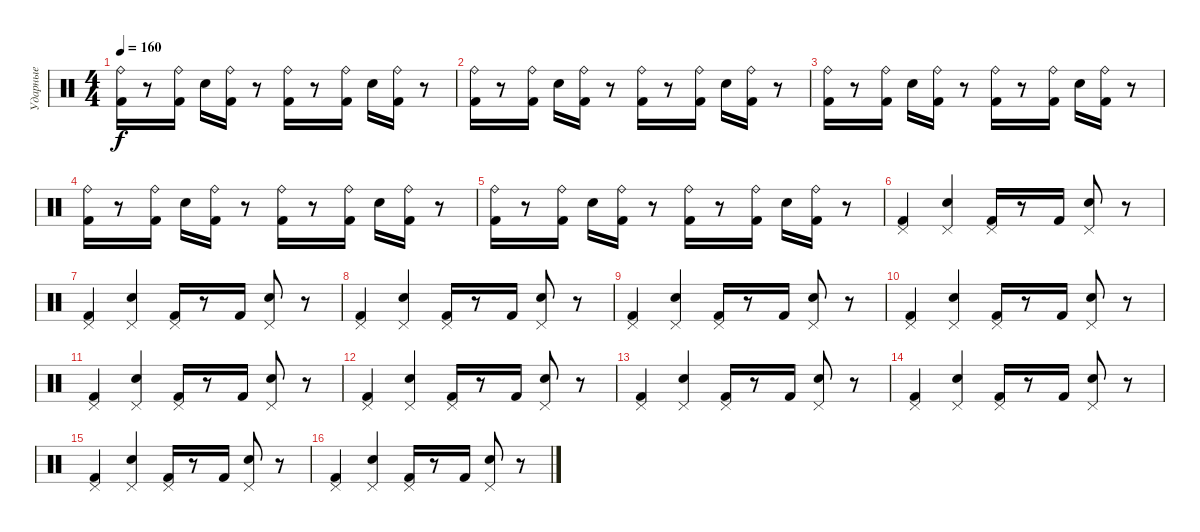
\track ("Ударные" "Ударные") {instrument percussion}
\staff {score}
\articulation defaults
\ts (4 4)
\tempo 160
\clef neutral
\ks c
("Ride (bell)" "Kick (hit) 2").16{dy f} r.8 ("Ride (bell)" "Kick (hit) 2").16 "Snare (hit) 2".16 ("Ride (bell)" "Kick (hit) 2").16 r.8 ("Ride (bell)" "Kick (hit) 2").16 r.8 ("Ride (bell)" "Kick (hit) 2").16 "Snare (hit) 2".16 ("Ride (bell)" "Kick (hit) 2").16 r.8 |
("Ride (bell)" "Kick (hit) 2").16 r.8 ("Ride (bell)" "Kick (hit) 2").16 "Snare (hit) 2".16 ("Ride (bell)" "Kick (hit) 2").16 r.8 ("Ride (bell)" "Kick (hit) 2").16 r.8 ("Ride (bell)" "Kick (hit) 2").16 "Snare (hit) 2".16 ("Ride (bell)" "Kick (hit) 2").16 r.8 |
("Ride (bell)" "Kick (hit) 2").16 r.8 ("Ride (bell)" "Kick (hit) 2").16 "Snare (hit) 2".16 ("Ride (bell)" "Kick (hit) 2").16 r.8 ("Ride (bell)" "Kick (hit) 2").16 r.8 ("Ride (bell)" "Kick (hit) 2").16 "Snare (hit) 2".16 ("Ride (bell)" "Kick (hit) 2").16 r.8 |
("Ride (bell)" "Kick (hit) 2").16 r.8 ("Ride (bell)" "Kick (hit) 2").16 "Snare (hit) 2".16 ("Ride (bell)" "Kick (hit) 2").16 r.8 ("Ride (bell)" "Kick (hit) 2").16 r.8 ("Ride (bell)" "Kick (hit) 2").16 "Snare (hit) 2".16 ("Ride (bell)" "Kick (hit) 2").16 r.8 |
("Ride (bell)" "Kick (hit) 2").16 r.8 ("Ride (bell)" "Kick (hit) 2").16 "Snare (hit) 2".16 ("Ride (bell)" "Kick (hit) 2").16 r.8 ("Ride (bell)" "Kick (hit) 2").16 r.8 ("Ride (bell)" "Kick (hit) 2").16 "Snare (hit) 2".16 ("Ride (bell)" "Kick (hit) 2").16 r.8 |
("Pedal Hi-Hat (hit)" "Kick (hit) 2").4 ("Pedal Hi-Hat (hit)" "Snare (hit) 2").4 ("Pedal Hi-Hat (hit)" "Kick (hit) 2").16 r.8 "Kick (hit) 2".16 ("Pedal Hi-Hat (hit)" "Snare (hit) 2").8 r.8 |
("Pedal Hi-Hat (hit)" "Kick (hit) 2").4 ("Pedal Hi-Hat (hit)" "Snare (hit) 2").4 ("Pedal Hi-Hat (hit)" "Kick (hit) 2").16 r.8 "Kick (hit) 2".16 ("Pedal Hi-Hat (hit)" "Snare (hit) 2").8 r.8 |
("Pedal Hi-Hat (hit)" "Kick (hit) 2").4 ("Pedal Hi-Hat (hit)" "Snare (hit) 2").4 ("Pedal Hi-Hat (hit)" "Kick (hit) 2").16 r.8 "Kick (hit) 2".16 ("Pedal Hi-Hat (hit)" "Snare (hit) 2").8 r.8 |
("Pedal Hi-Hat (hit)" "Kick (hit) 2").4 ("Pedal Hi-Hat (hit)" "Snare (hit) 2").4 ("Pedal Hi-Hat (hit)" "Kick (hit) 2").16 r.8 "Kick (hit) 2".16 ("Pedal Hi-Hat (hit)" "Snare (hit) 2").8 r.8 |
("Pedal Hi-Hat (hit)" "Kick (hit) 2").4 ("Pedal Hi-Hat (hit)" "Snare (hit) 2").4 ("Pedal Hi-Hat (hit)" "Kick (hit) 2").16 r.8 "Kick (hit) 2".16 ("Pedal Hi-Hat (hit)" "Snare (hit) 2").8 r.8 |
("Pedal Hi-Hat (hit)" "Kick (hit) 2").4 ("Pedal Hi-Hat (hit)" "Snare (hit) 2").4 ("Pedal Hi-Hat (hit)" "Kick (hit) 2").16 r.8 "Kick (hit) 2".16 ("Pedal Hi-Hat (hit)" "Snare (hit) 2").8 r.8 |
("Pedal Hi-Hat (hit)" "Kick (hit) 2").4 ("Pedal Hi-Hat (hit)" "Snare (hit) 2").4 ("Pedal Hi-Hat (hit)" "Kick (hit) 2").16 r.8 "Kick (hit) 2".16 ("Pedal Hi-Hat (hit)" "Snare (hit) 2").8 r.8 |
("Pedal Hi-Hat (hit)" "Kick (hit) 2").4 ("Pedal Hi-Hat (hit)" "Snare (hit) 2").4 ("Pedal Hi-Hat (hit)" "Kick (hit) 2").16 r.8 "Kick (hit) 2".16 ("Pedal Hi-Hat (hit)" "Snare (hit) 2").8 r.8 |
("Pedal Hi-Hat (hit)" "Kick (hit) 2").4 ("Pedal Hi-Hat (hit)" "Snare (hit) 2").4 ("Pedal Hi-Hat (hit)" "Kick (hit) 2").16 r.8 "Kick (hit) 2".16 ("Pedal Hi-Hat (hit)" "Snare (hit) 2").8 r.8 |
("Pedal Hi-Hat (hit)" "Kick (hit) 2").4 ("Pedal Hi-Hat (hit)" "Snare (hit) 2").4 ("Pedal Hi-Hat (hit)" "Kick (hit) 2").16 r.8 "Kick (hit) 2".16 ("Pedal Hi-Hat (hit)" "Snare (hit) 2").8 r.8 |
("Pedal Hi-Hat (hit)" "Kick (hit) 2").4 ("Pedal Hi-Hat (hit)" "Snare (hit) 2").4 ("Pedal Hi-Hat (hit)" "Kick (hit) 2").16 r.8 "Kick (hit) 2".16 ("Pedal Hi-Hat (hit)" "Snare (hit) 2").8 r.8
